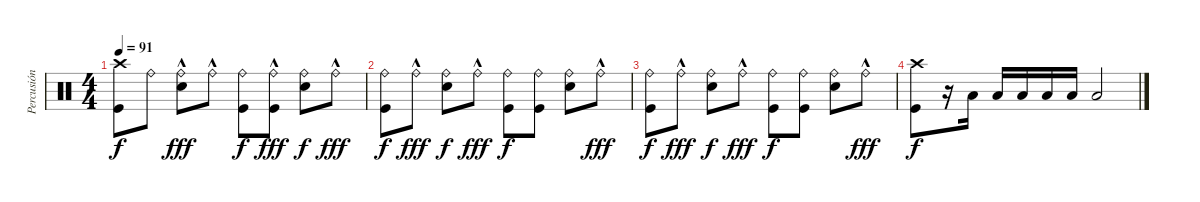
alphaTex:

\track ("Percusión" "Percusión") {instrument percussion}
\staff {score}
\articulation defaults
\ts (4 4)
\tempo 91
\clef neutral
\ks c
("Crash high (hit)" "Kick (hit)").8{dy f} "Ride (bell)".8 ("Ride (bell)"{hac} "Snare (hit) 2").8{dy fff} "Ride (bell)"{hac}.8 ("Ride (bell)" "Kick (hit)").8{dy f} ("Ride (bell)"{hac} "Kick (hit)").8{dy fff} ("Ride (bell)" "Snare (hit) 2").8{dy f} "Ride (bell)"{hac}.8{dy fff} |
("Ride (bell)" "Kick (hit)").8{dy f} "Ride (bell)"{hac}.8{dy fff} ("Ride (bell)" "Snare (hit) 2").8{dy f} "Ride (bell)"{hac}.8{dy fff} ("Ride (bell)" "Kick (hit)").8{dy f} ("Ride (bell)" "Kick (hit)").8 ("Ride (bell)" "Snare (hit) 2").8 "Ride (bell)"{hac}.8{dy fff} |
("Ride (bell)" "Kick (hit)").8{dy f} "Ride (bell)"{hac}.8{dy fff} ("Ride (bell)" "Snare (hit) 2").8{dy f} "Ride (bell)"{hac}.8{dy fff} ("Ride (bell)" "Kick (hit)").8{dy f} ("Ride (bell)" "Kick (hit)").8 ("Ride (bell)" "Snare (hit) 2").8 "Ride (bell)"{hac}.8{dy fff} |
("Kick (hit)" "Crash high (hit)").8{dy f} r.16 "Low Tom (hit)".16 "Low Tom (hit)".16 "Low Tom (hit)".16 "Low Tom (hit)".16 "Low Tom (hit)".16 "Low Tom (hit)".2
